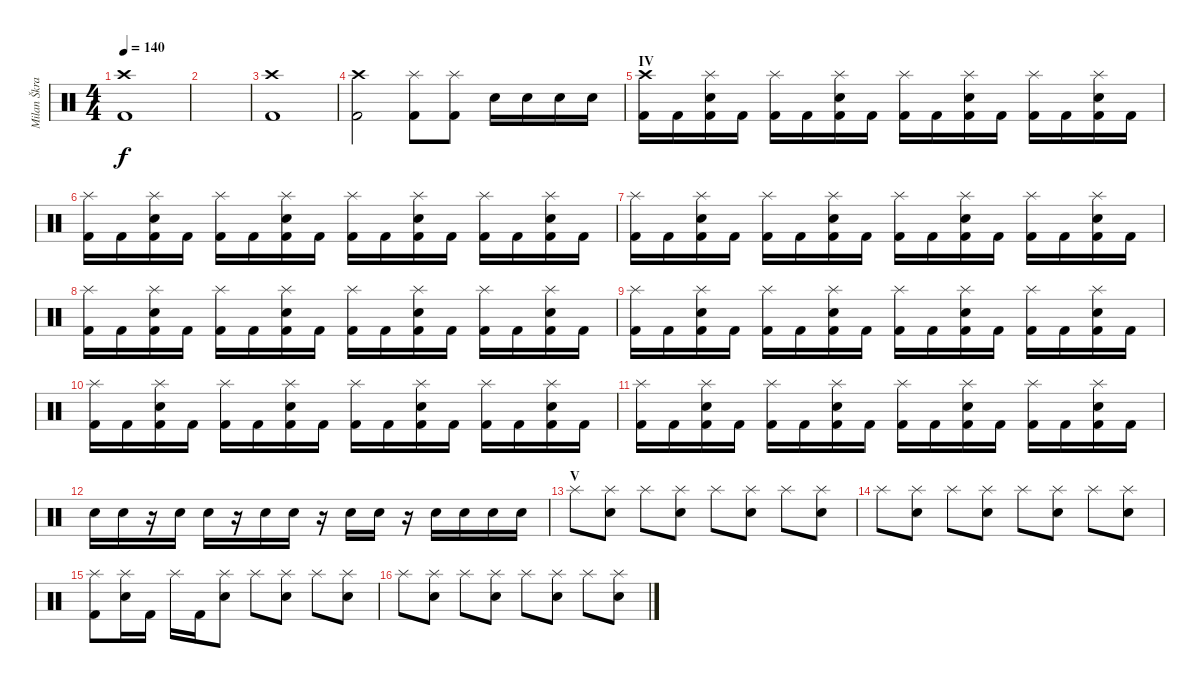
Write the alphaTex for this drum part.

\track ("Milan Škrabal" "Milan Škra") {instrument percussion}
\staff {score}
\articulation defaults
\ts (4 4)
\tempo 140
\clef neutral
\ks c
("Crash high (hit)" "Kick (hit) 2").1{dy f} |
|
("Crash high (hit)" "Kick (hit) 2").1 |
("Crash high (hit)" "Kick (hit) 2").2 ("Splash (hit)" "Kick (hit) 2").8 ("Splash (hit)" "Kick (hit) 2").8 "Electric Snare (hit)".16 "Electric Snare (hit)".16 "Electric Snare (hit)".16 "Electric Snare (hit)".16 |
\section ("" "IV")
("Crash high (hit)" "Kick (hit) 2").16 "Kick (hit) 2".16 ("Splash (hit)" "Electric Snare (hit)" "Kick (hit) 2").16 "Kick (hit) 2".16 ("Splash (hit)" "Kick (hit) 2").16 "Kick (hit) 2".16 ("Splash (hit)" "Electric Snare (hit)" "Kick (hit) 2").16 "Kick (hit) 2".16 ("Splash (hit)" "Kick (hit) 2").16 "Kick (hit) 2".16 ("Splash (hit)" "Electric Snare (hit)" "Kick (hit) 2").16 "Kick (hit) 2".16 ("Splash (hit)" "Kick (hit) 2").16 "Kick (hit) 2".16 ("Splash (hit)" "Electric Snare (hit)" "Kick (hit) 2").16 "Kick (hit) 2".16 |
("Splash (hit)" "Kick (hit) 2").16 "Kick (hit) 2".16 ("Splash (hit)" "Electric Snare (hit)" "Kick (hit) 2").16 "Kick (hit) 2".16 ("Splash (hit)" "Kick (hit) 2").16 "Kick (hit) 2".16 ("Splash (hit)" "Electric Snare (hit)" "Kick (hit) 2").16 "Kick (hit) 2".16 ("Splash (hit)" "Kick (hit) 2").16 "Kick (hit) 2".16 ("Splash (hit)" "Electric Snare (hit)" "Kick (hit) 2").16 "Kick (hit) 2".16 ("Splash (hit)" "Kick (hit) 2").16 "Kick (hit) 2".16 ("Splash (hit)" "Electric Snare (hit)" "Kick (hit) 2").16 "Kick (hit) 2".16 |
("Splash (hit)" "Kick (hit) 2").16 "Kick (hit) 2".16 ("Splash (hit)" "Electric Snare (hit)" "Kick (hit) 2").16 "Kick (hit) 2".16 ("Splash (hit)" "Kick (hit) 2").16 "Kick (hit) 2".16 ("Splash (hit)" "Electric Snare (hit)" "Kick (hit) 2").16 "Kick (hit) 2".16 ("Splash (hit)" "Kick (hit) 2").16 "Kick (hit) 2".16 ("Splash (hit)" "Electric Snare (hit)" "Kick (hit) 2").16 "Kick (hit) 2".16 ("Splash (hit)" "Kick (hit) 2").16 "Kick (hit) 2".16 ("Splash (hit)" "Electric Snare (hit)" "Kick (hit) 2").16 "Kick (hit) 2".16 |
("Splash (hit)" "Kick (hit) 2").16 "Kick (hit) 2".16 ("Splash (hit)" "Electric Snare (hit)" "Kick (hit) 2").16 "Kick (hit) 2".16 ("Splash (hit)" "Kick (hit) 2").16 "Kick (hit) 2".16 ("Splash (hit)" "Electric Snare (hit)" "Kick (hit) 2").16 "Kick (hit) 2".16 ("Splash (hit)" "Kick (hit) 2").16 "Kick (hit) 2".16 ("Splash (hit)" "Electric Snare (hit)" "Kick (hit) 2").16 "Kick (hit) 2".16 ("Splash (hit)" "Kick (hit) 2").16 "Kick (hit) 2".16 ("Splash (hit)" "Electric Snare (hit)" "Kick (hit) 2").16 "Kick (hit) 2".16 |
("Splash (hit)" "Kick (hit) 2").16 "Kick (hit) 2".16 ("Splash (hit)" "Electric Snare (hit)" "Kick (hit) 2").16 "Kick (hit) 2".16 ("Splash (hit)" "Kick (hit) 2").16 "Kick (hit) 2".16 ("Splash (hit)" "Electric Snare (hit)" "Kick (hit) 2").16 "Kick (hit) 2".16 ("Splash (hit)" "Kick (hit) 2").16 "Kick (hit) 2".16 ("Splash (hit)" "Electric Snare (hit)" "Kick (hit) 2").16 "Kick (hit) 2".16 ("Splash (hit)" "Kick (hit) 2").16 "Kick (hit) 2".16 ("Splash (hit)" "Electric Snare (hit)" "Kick (hit) 2").16 "Kick (hit) 2".16 |
("Splash (hit)" "Kick (hit) 2").16 "Kick (hit) 2".16 ("Splash (hit)" "Electric Snare (hit)" "Kick (hit) 2").16 "Kick (hit) 2".16 ("Splash (hit)" "Kick (hit) 2").16 "Kick (hit) 2".16 ("Splash (hit)" "Electric Snare (hit)" "Kick (hit) 2").16 "Kick (hit) 2".16 ("Splash (hit)" "Kick (hit) 2").16 "Kick (hit) 2".16 ("Splash (hit)" "Electric Snare (hit)" "Kick (hit) 2").16 "Kick (hit) 2".16 ("Splash (hit)" "Kick (hit) 2").16 "Kick (hit) 2".16 ("Splash (hit)" "Electric Snare (hit)" "Kick (hit) 2").16 "Kick (hit) 2".16 |
("Splash (hit)" "Kick (hit) 2").16 "Kick (hit) 2".16 ("Splash (hit)" "Electric Snare (hit)" "Kick (hit) 2").16 "Kick (hit) 2".16 ("Splash (hit)" "Kick (hit) 2").16 "Kick (hit) 2".16 ("Splash (hit)" "Electric Snare (hit)" "Kick (hit) 2").16 "Kick (hit) 2".16 ("Splash (hit)" "Kick (hit) 2").16 "Kick (hit) 2".16 ("Splash (hit)" "Electric Snare (hit)" "Kick (hit) 2").16 "Kick (hit) 2".16 ("Splash (hit)" "Kick (hit) 2").16 "Kick (hit) 2".16 ("Splash (hit)" "Electric Snare (hit)" "Kick (hit) 2").16 "Kick (hit) 2".16 |
"Electric Snare (hit)".16 "Electric Snare (hit)".16 r.16 "Electric Snare (hit)".16 "Electric Snare (hit)".16 r.16 "Electric Snare (hit)".16 "Electric Snare (hit)".16 r.16 "Electric Snare (hit)".16 "Electric Snare (hit)".16 r.16 "Electric Snare (hit)".16 "Electric Snare (hit)".16 "Electric Snare (hit)".16 "Electric Snare (hit)".16 |
\section ("" "V")
"Splash (hit)".8 ("Splash (hit)" "Electric Snare (hit)").8 "Splash (hit)".8 ("Splash (hit)" "Electric Snare (hit)").8 "Splash (hit)".8 ("Splash (hit)" "Electric Snare (hit)").8 "Splash (hit)".8 ("Splash (hit)" "Electric Snare (hit)").8 |
"Splash (hit)".8 ("Splash (hit)" "Electric Snare (hit)").8 "Splash (hit)".8 ("Splash (hit)" "Electric Snare (hit)").8 "Splash (hit)".8 ("Splash (hit)" "Electric Snare (hit)").8 "Splash (hit)".8 ("Splash (hit)" "Electric Snare (hit)").8 |
("Splash (hit)" "Kick (hit) 2").8 ("Splash (hit)" "Electric Snare (hit)").16 "Kick (hit) 2".16 "Splash (hit)".16 "Kick (hit) 2".16 ("Splash (hit)" "Electric Snare (hit)").8 "Splash (hit)".8 ("Splash (hit)" "Electric Snare (hit)").8 "Splash (hit)".8 ("Splash (hit)" "Electric Snare (hit)").8 |
"Splash (hit)".8 ("Splash (hit)" "Electric Snare (hit)").8 "Splash (hit)".8 ("Splash (hit)" "Electric Snare (hit)").8 "Splash (hit)".8 ("Splash (hit)" "Electric Snare (hit)").8 "Splash (hit)".8 ("Splash (hit)" "Electric Snare (hit)").8
